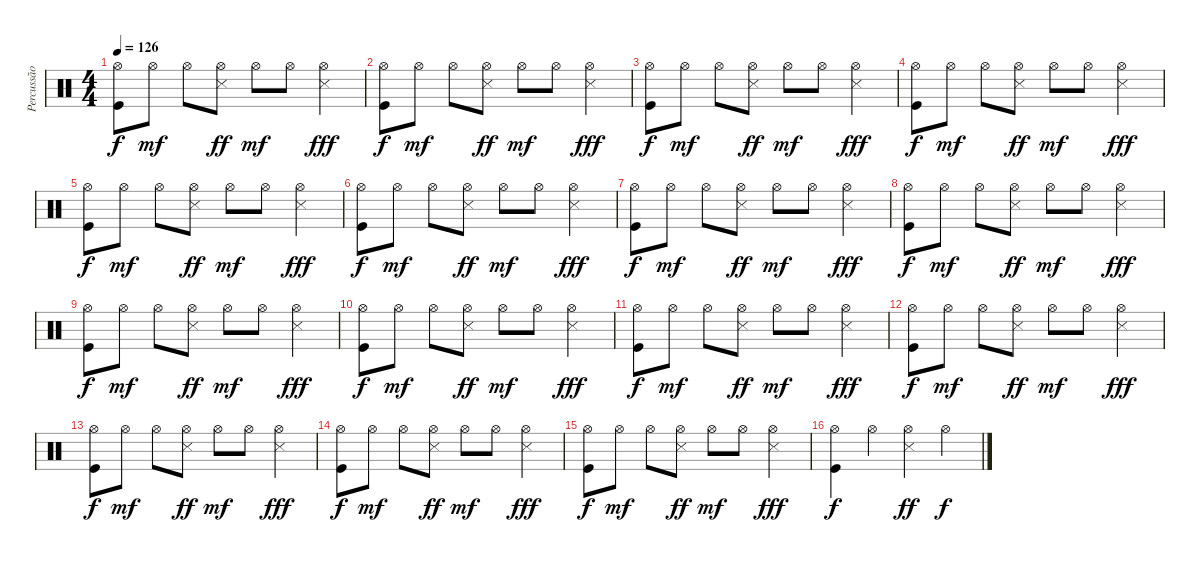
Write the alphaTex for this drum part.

\track ("Percussão" "Percussão") {instrument percussion}
\staff {score}
\articulation defaults
\ts (4 4)
\tempo 126
\clef neutral
\ks c
("Hi-Hat (open)" "Kick (hit)").8{dy f} "Hi-Hat (open)".8{dy mf} "Hi-Hat (open)".8 ("Hi-Hat (open)" "Snare (side stick) 3").8{dy ff} "Hi-Hat (open)".8{dy mf} "Hi-Hat (open)".8 ("Hi-Hat (open)" "Snare (side stick) 3").4{dy fff} |
("Hi-Hat (open)" "Kick (hit)").8{dy f} "Hi-Hat (open)".8{dy mf} "Hi-Hat (open)".8 ("Hi-Hat (open)" "Snare (side stick) 3").8{dy ff} "Hi-Hat (open)".8{dy mf} "Hi-Hat (open)".8 ("Hi-Hat (open)" "Snare (side stick) 3").4{dy fff} |
("Hi-Hat (open)" "Kick (hit)").8{dy f} "Hi-Hat (open)".8{dy mf} "Hi-Hat (open)".8 ("Hi-Hat (open)" "Snare (side stick) 3").8{dy ff} "Hi-Hat (open)".8{dy mf} "Hi-Hat (open)".8 ("Hi-Hat (open)" "Snare (side stick) 3").4{dy fff} |
("Hi-Hat (open)" "Kick (hit)").8{dy f} "Hi-Hat (open)".8{dy mf} "Hi-Hat (open)".8 ("Hi-Hat (open)" "Snare (side stick) 3").8{dy ff} "Hi-Hat (open)".8{dy mf} "Hi-Hat (open)".8 ("Hi-Hat (open)" "Snare (side stick) 3").4{dy fff} |
("Hi-Hat (open)" "Kick (hit)").8{dy f} "Hi-Hat (open)".8{dy mf} "Hi-Hat (open)".8 ("Hi-Hat (open)" "Snare (side stick) 3").8{dy ff} "Hi-Hat (open)".8{dy mf} "Hi-Hat (open)".8 ("Hi-Hat (open)" "Snare (side stick) 3").4{dy fff} |
("Hi-Hat (open)" "Kick (hit)").8{dy f} "Hi-Hat (open)".8{dy mf} "Hi-Hat (open)".8 ("Hi-Hat (open)" "Snare (side stick) 3").8{dy ff} "Hi-Hat (open)".8{dy mf} "Hi-Hat (open)".8 ("Hi-Hat (open)" "Snare (side stick) 3").4{dy fff} |
("Hi-Hat (open)" "Kick (hit)").8{dy f} "Hi-Hat (open)".8{dy mf} "Hi-Hat (open)".8 ("Hi-Hat (open)" "Snare (side stick) 3").8{dy ff} "Hi-Hat (open)".8{dy mf} "Hi-Hat (open)".8 ("Hi-Hat (open)" "Snare (side stick) 3").4{dy fff} |
("Hi-Hat (open)" "Kick (hit)").8{dy f} "Hi-Hat (open)".8{dy mf} "Hi-Hat (open)".8 ("Hi-Hat (open)" "Snare (side stick) 3").8{dy ff} "Hi-Hat (open)".8{dy mf} "Hi-Hat (open)".8 ("Hi-Hat (open)" "Snare (side stick) 3").4{dy fff} |
("Hi-Hat (open)" "Kick (hit)").8{dy f} "Hi-Hat (open)".8{dy mf} "Hi-Hat (open)".8 ("Hi-Hat (open)" "Snare (side stick) 3").8{dy ff} "Hi-Hat (open)".8{dy mf} "Hi-Hat (open)".8 ("Hi-Hat (open)" "Snare (side stick) 3").4{dy fff} |
("Hi-Hat (open)" "Kick (hit)").8{dy f} "Hi-Hat (open)".8{dy mf} "Hi-Hat (open)".8 ("Hi-Hat (open)" "Snare (side stick) 3").8{dy ff} "Hi-Hat (open)".8{dy mf} "Hi-Hat (open)".8 ("Hi-Hat (open)" "Snare (side stick) 3").4{dy fff} |
("Hi-Hat (open)" "Kick (hit)").8{dy f} "Hi-Hat (open)".8{dy mf} "Hi-Hat (open)".8 ("Hi-Hat (open)" "Snare (side stick) 3").8{dy ff} "Hi-Hat (open)".8{dy mf} "Hi-Hat (open)".8 ("Hi-Hat (open)" "Snare (side stick) 3").4{dy fff} |
("Hi-Hat (open)" "Kick (hit)").8{dy f} "Hi-Hat (open)".8{dy mf} "Hi-Hat (open)".8 ("Hi-Hat (open)" "Snare (side stick) 3").8{dy ff} "Hi-Hat (open)".8{dy mf} "Hi-Hat (open)".8 ("Hi-Hat (open)" "Snare (side stick) 3").4{dy fff} |
("Hi-Hat (open)" "Kick (hit)").8{dy f} "Hi-Hat (open)".8{dy mf} "Hi-Hat (open)".8 ("Hi-Hat (open)" "Snare (side stick) 3").8{dy ff} "Hi-Hat (open)".8{dy mf} "Hi-Hat (open)".8 ("Hi-Hat (open)" "Snare (side stick) 3").4{dy fff} |
("Hi-Hat (open)" "Kick (hit)").8{dy f} "Hi-Hat (open)".8{dy mf} "Hi-Hat (open)".8 ("Hi-Hat (open)" "Snare (side stick) 3").8{dy ff} "Hi-Hat (open)".8{dy mf} "Hi-Hat (open)".8 ("Hi-Hat (open)" "Snare (side stick) 3").4{dy fff} |
("Hi-Hat (open)" "Kick (hit)").8{dy f} "Hi-Hat (open)".8{dy mf} "Hi-Hat (open)".8 ("Hi-Hat (open)" "Snare (side stick) 3").8{dy ff} "Hi-Hat (open)".8{dy mf} "Hi-Hat (open)".8 ("Hi-Hat (open)" "Snare (side stick) 3").4{dy fff} |
("Hi-Hat (open)" "Kick (hit)").4{dy f} "Hi-Hat (open)".4 ("Hi-Hat (open)" "Snare (side stick) 3").4{dy ff} "Hi-Hat (open)".4{dy f}
